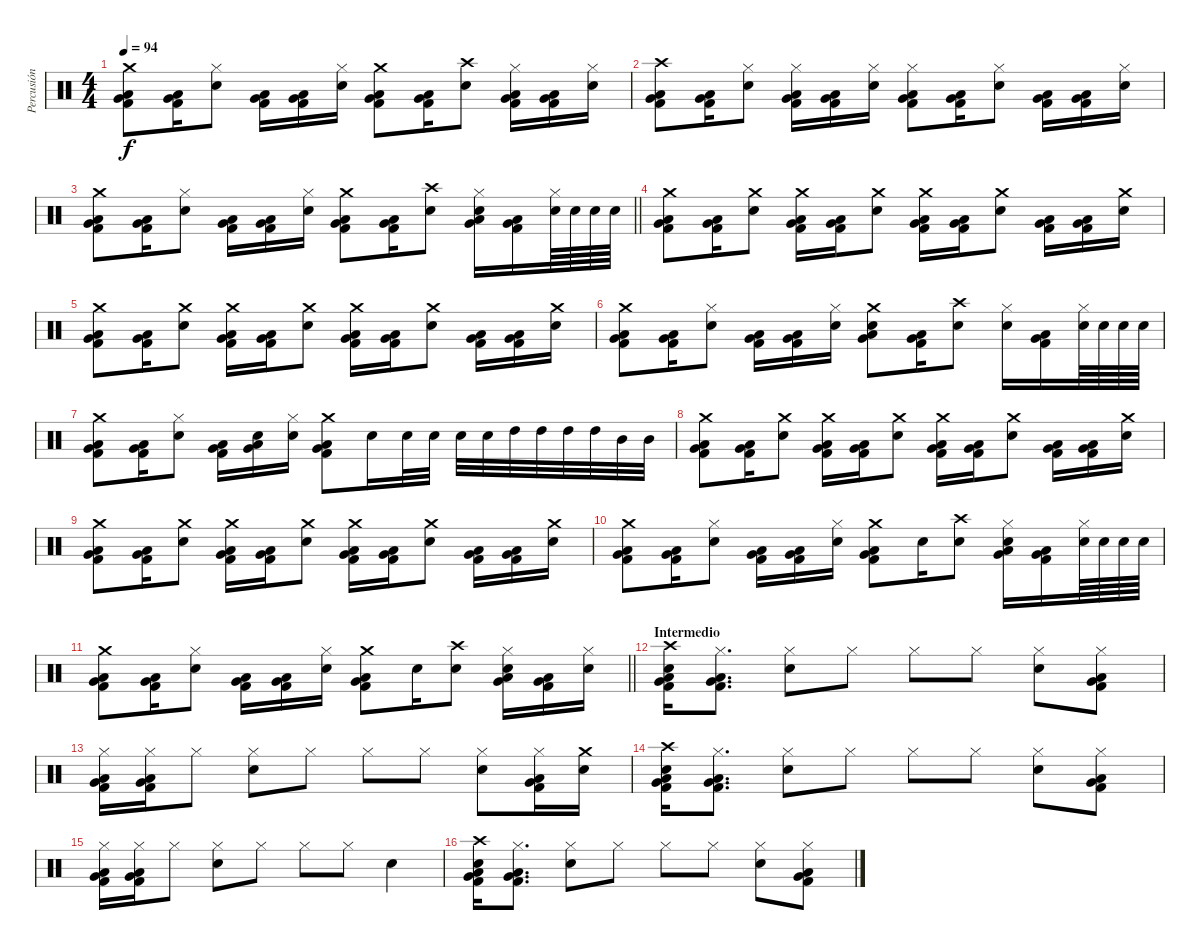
\track ("Percusión" "Percusión") {instrument percussion}
\staff {score}
\articulation defaults
\ts (4 4)
\tempo 94
\clef neutral
\ks c
("Crash medium (hit)" "Kick (hit) 2" "Low Floor Tom (hit)" "Very Low Tom (hit)").8{dy f} ("Kick (hit) 2" "Low Floor Tom (hit)" "Very Low Tom (hit)").16 ("Hi-Hat (closed)" "Electric Snare (hit)").8 ("Kick (hit) 2" "Low Floor Tom (hit)" "Very Low Tom (hit)").16 ("Kick (hit) 2" "Low Floor Tom (hit)" "Very Low Tom (hit)").16 ("Hi-Hat (closed)" "Electric Snare (hit)").16 ("Crash medium (hit)" "Kick (hit) 2" "Low Floor Tom (hit)" "Very Low Tom (hit)").8 ("Kick (hit) 2" "Low Floor Tom (hit)" "Very Low Tom (hit)").16 ("Crash high (hit)" "Electric Snare (hit)").8 ("Hi-Hat (closed)" "Kick (hit) 2" "Low Floor Tom (hit)" "Very Low Tom (hit)").16 ("Kick (hit) 2" "Low Floor Tom (hit)" "Very Low Tom (hit)").16 ("Hi-Hat (closed)" "Electric Snare (hit)").16 |
("Crash high (hit)" "Kick (hit) 2" "Low Floor Tom (hit)" "Very Low Tom (hit)").8 ("Kick (hit) 2" "Low Floor Tom (hit)" "Very Low Tom (hit)").16 ("Hi-Hat (closed)" "Electric Snare (hit)").8 ("Hi-Hat (closed)" "Kick (hit) 2" "Low Floor Tom (hit)" "Very Low Tom (hit)").16 ("Kick (hit) 2" "Low Floor Tom (hit)" "Very Low Tom (hit)").16 ("Hi-Hat (closed)" "Electric Snare (hit)").16 ("Hi-Hat (closed)" "Kick (hit) 2" "Low Floor Tom (hit)" "Very Low Tom (hit)").8 ("Kick (hit) 2" "Low Floor Tom (hit)" "Very Low Tom (hit)").16 ("Hi-Hat (closed)" "Electric Snare (hit)").8 ("Kick (hit) 2" "Low Floor Tom (hit)" "Very Low Tom (hit)").16 ("Kick (hit) 2" "Low Floor Tom (hit)" "Very Low Tom (hit)").16 ("Hi-Hat (closed)" "Electric Snare (hit)").16 |
\barLineRight lightlight
("Crash medium (hit)" "Kick (hit) 2" "Low Floor Tom (hit)" "Very Low Tom (hit)").8 ("Kick (hit) 2" "Low Floor Tom (hit)" "Very Low Tom (hit)").16 ("Hi-Hat (closed)" "Electric Snare (hit)").8 ("Kick (hit) 2" "Low Floor Tom (hit)" "Very Low Tom (hit)").16 ("Kick (hit) 2" "Low Floor Tom (hit)" "Very Low Tom (hit)").16 ("Hi-Hat (closed)" "Electric Snare (hit)").16 ("Crash medium (hit)" "Kick (hit) 2" "Low Floor Tom (hit)" "Very Low Tom (hit)").8 ("Kick (hit) 2" "Low Floor Tom (hit)" "Very Low Tom (hit)").16 ("Crash high (hit)" "Electric Snare (hit)").8 ("Hi-Hat (closed)" "Electric Snare (hit)" "Low Floor Tom (hit)" "Very Low Tom (hit)").16 ("Kick (hit) 2" "Low Floor Tom (hit)" "Very Low Tom (hit)").16 ("Hi-Hat (closed)" "Electric Snare (hit)").64 "Electric Snare (hit)".64 "Electric Snare (hit)".64 "Electric Snare (hit)".64 |
("Crash medium (hit)" "Kick (hit) 2" "Low Floor Tom (hit)" "Very Low Tom (hit)").8 ("Kick (hit) 2" "Low Floor Tom (hit)" "Very Low Tom (hit)").16 ("Crash medium (hit)" "Electric Snare (hit)").8 ("Crash medium (hit)" "Kick (hit) 2" "Low Floor Tom (hit)" "Very Low Tom (hit)").16 ("Kick (hit) 2" "Low Floor Tom (hit)" "Very Low Tom (hit)").16 ("Crash medium (hit)" "Electric Snare (hit)").8 ("Crash medium (hit)" "Kick (hit) 2" "Low Floor Tom (hit)" "Very Low Tom (hit)").16 ("Kick (hit) 2" "Low Floor Tom (hit)" "Very Low Tom (hit)").16 ("Crash medium (hit)" "Electric Snare (hit)").8 ("Kick (hit) 2" "Low Floor Tom (hit)" "Very Low Tom (hit)").16 ("Kick (hit) 2" "Low Floor Tom (hit)" "Very Low Tom (hit)").16 ("Crash medium (hit)" "Electric Snare (hit)").16 |
("Crash medium (hit)" "Kick (hit) 2" "Low Floor Tom (hit)" "Very Low Tom (hit)").8 ("Kick (hit) 2" "Low Floor Tom (hit)" "Very Low Tom (hit)").16 ("Crash medium (hit)" "Electric Snare (hit)").8 ("Crash medium (hit)" "Kick (hit) 2" "Low Floor Tom (hit)" "Very Low Tom (hit)").16 ("Kick (hit) 2" "Low Floor Tom (hit)" "Very Low Tom (hit)").16 ("Crash medium (hit)" "Electric Snare (hit)").8 ("Crash medium (hit)" "Kick (hit) 2" "Low Floor Tom (hit)" "Very Low Tom (hit)").16 ("Kick (hit) 2" "Low Floor Tom (hit)" "Very Low Tom (hit)").16 ("Crash medium (hit)" "Electric Snare (hit)").8 ("Kick (hit) 2" "Low Floor Tom (hit)" "Very Low Tom (hit)").16 ("Kick (hit) 2" "Low Floor Tom (hit)" "Very Low Tom (hit)").16 ("Crash medium (hit)" "Electric Snare (hit)").16 |
("Crash medium (hit)" "Kick (hit) 2" "Low Floor Tom (hit)" "Very Low Tom (hit)").8 ("Kick (hit) 2" "Low Floor Tom (hit)" "Very Low Tom (hit)").16 ("Hi-Hat (closed)" "Electric Snare (hit)").8 ("Kick (hit) 2" "Low Floor Tom (hit)" "Very Low Tom (hit)").16 ("Kick (hit) 2" "Low Floor Tom (hit)" "Very Low Tom (hit)").16 ("Hi-Hat (closed)" "Electric Snare (hit)").16 ("Crash medium (hit)" "Electric Snare (hit)" "Low Floor Tom (hit)" "Very Low Tom (hit)").8 ("Kick (hit) 2" "Low Floor Tom (hit)" "Very Low Tom (hit)").16 ("Crash high (hit)" "Electric Snare (hit)").8 ("Hi-Hat (closed)" "Electric Snare (hit)").16 ("Kick (hit) 2" "Low Floor Tom (hit)" "Very Low Tom (hit)").16 ("Hi-Hat (closed)" "Electric Snare (hit)").64 "Electric Snare (hit)".64 "Electric Snare (hit)".64 "Electric Snare (hit)".64 |
("Crash medium (hit)" "Kick (hit) 2" "Low Floor Tom (hit)" "Very Low Tom (hit)").8 ("Kick (hit) 2" "Low Floor Tom (hit)" "Very Low Tom (hit)").16 ("Hi-Hat (closed)" "Electric Snare (hit)").8 ("Kick (hit) 2" "Low Floor Tom (hit)" "Very Low Tom (hit)").16 ("Electric Snare (hit)" "Low Floor Tom (hit)" "Very Low Tom (hit)").16 ("Hi-Hat (closed)" "Electric Snare (hit)").16 ("Crash medium (hit)" "Kick (hit) 2" "Low Floor Tom (hit)" "Very Low Tom (hit)").8 "Electric Snare (hit)".16 "Electric Snare (hit)".32 "Electric Snare (hit)".32 "Electric Snare (hit)".32 "Electric Snare (hit)".32 "High Tom (hit)".32 "High Tom (hit)".32 "High Tom (hit)".32 "High Tom (hit)".32 "Mid Tom (hit)".32 "Mid Tom (hit)".32 |
("Crash medium (hit)" "Kick (hit) 2" "Low Floor Tom (hit)" "Very Low Tom (hit)").8 ("Kick (hit) 2" "Low Floor Tom (hit)" "Very Low Tom (hit)").16 ("Crash medium (hit)" "Electric Snare (hit)").8 ("Crash medium (hit)" "Kick (hit) 2" "Low Floor Tom (hit)" "Very Low Tom (hit)").16 ("Kick (hit) 2" "Low Floor Tom (hit)" "Very Low Tom (hit)").16 ("Crash medium (hit)" "Electric Snare (hit)").8 ("Crash medium (hit)" "Kick (hit) 2" "Low Floor Tom (hit)" "Very Low Tom (hit)").16 ("Kick (hit) 2" "Low Floor Tom (hit)" "Very Low Tom (hit)").16 ("Crash medium (hit)" "Electric Snare (hit)").8 ("Kick (hit) 2" "Low Floor Tom (hit)" "Very Low Tom (hit)").16 ("Kick (hit) 2" "Low Floor Tom (hit)" "Very Low Tom (hit)").16 ("Crash medium (hit)" "Electric Snare (hit)").16 |
("Crash medium (hit)" "Kick (hit) 2" "Low Floor Tom (hit)" "Very Low Tom (hit)").8 ("Kick (hit) 2" "Low Floor Tom (hit)" "Very Low Tom (hit)").16 ("Crash medium (hit)" "Electric Snare (hit)").8 ("Crash medium (hit)" "Kick (hit) 2" "Low Floor Tom (hit)" "Very Low Tom (hit)").16 ("Kick (hit) 2" "Low Floor Tom (hit)" "Very Low Tom (hit)").16 ("Crash medium (hit)" "Electric Snare (hit)").8 ("Crash medium (hit)" "Kick (hit) 2" "Low Floor Tom (hit)" "Very Low Tom (hit)").16 ("Kick (hit) 2" "Low Floor Tom (hit)" "Very Low Tom (hit)").16 ("Crash medium (hit)" "Electric Snare (hit)").8 ("Kick (hit) 2" "Low Floor Tom (hit)" "Very Low Tom (hit)").16 ("Kick (hit) 2" "Low Floor Tom (hit)" "Very Low Tom (hit)").16 ("Crash medium (hit)" "Electric Snare (hit)").16 |
("Crash medium (hit)" "Kick (hit) 2" "Low Floor Tom (hit)" "Very Low Tom (hit)").8 ("Kick (hit) 2" "Low Floor Tom (hit)" "Very Low Tom (hit)").16 ("Hi-Hat (closed)" "Electric Snare (hit)").8 ("Kick (hit) 2" "Low Floor Tom (hit)" "Very Low Tom (hit)").16 ("Kick (hit) 2" "Low Floor Tom (hit)" "Very Low Tom (hit)").16 ("Hi-Hat (closed)" "Electric Snare (hit)").16 ("Crash medium (hit)" "Kick (hit) 2" "Low Floor Tom (hit)" "Very Low Tom (hit)").8 "Electric Snare (hit)".16 ("Crash high (hit)" "Electric Snare (hit)").8 ("Hi-Hat (closed)" "Electric Snare (hit)" "Low Floor Tom (hit)" "Very Low Tom (hit)").16 ("Kick (hit) 2" "Low Floor Tom (hit)" "Very Low Tom (hit)").16 ("Hi-Hat (closed)" "Electric Snare (hit)").64 "Electric Snare (hit)".64 "Electric Snare (hit)".64 "Electric Snare (hit)".64 |
\barLineRight lightlight
("Crash medium (hit)" "Kick (hit) 2" "Low Floor Tom (hit)" "Very Low Tom (hit)").8 ("Kick (hit) 2" "Low Floor Tom (hit)" "Very Low Tom (hit)").16 ("Hi-Hat (closed)" "Electric Snare (hit)").8 ("Kick (hit) 2" "Low Floor Tom (hit)" "Very Low Tom (hit)").16 ("Kick (hit) 2" "Low Floor Tom (hit)" "Very Low Tom (hit)").16 ("Hi-Hat (closed)" "Electric Snare (hit)").16 ("Crash medium (hit)" "Kick (hit) 2" "Low Floor Tom (hit)" "Very Low Tom (hit)").8 "Electric Snare (hit)".16 ("Crash high (hit)" "Electric Snare (hit)").8 ("Hi-Hat (closed)" "Electric Snare (hit)" "Low Floor Tom (hit)" "Very Low Tom (hit)").16 ("Kick (hit) 2" "Low Floor Tom (hit)" "Very Low Tom (hit)").16 ("Hi-Hat (closed)" "Electric Snare (hit)").16 |
\section ("" "Intermedio")
("Crash high (hit)" "Electric Snare (hit)" "Low Floor Tom (hit)" "Kick (hit) 2" "Very Low Tom (hit)").16 ("Hi-Hat (closed)" "Low Floor Tom (hit)" "Kick (hit) 2" "Very Low Tom (hit)").8{d} ("Hi-Hat (closed)" "Electric Snare (hit)").8 "Hi-Hat (closed)".8 "Hi-Hat (closed)".8 "Hi-Hat (closed)".8 ("Hi-Hat (closed)" "Electric Snare (hit)").8 ("Hi-Hat (closed)" "Kick (hit) 2" "Low Floor Tom (hit)" "Very Low Tom (hit)").8 |
("Hi-Hat (closed)" "Kick (hit) 2" "Low Floor Tom (hit)" "Very Low Tom (hit)").16 ("Hi-Hat (closed)" "Kick (hit) 2" "Low Floor Tom (hit)" "Very Low Tom (hit)").16 "Hi-Hat (closed)".8 ("Hi-Hat (closed)" "Electric Snare (hit)").8 "Hi-Hat (closed)".8 "Hi-Hat (closed)".8 "Hi-Hat (closed)".8 ("Hi-Hat (closed)" "Electric Snare (hit)").8 ("Hi-Hat (closed)" "Kick (hit) 2" "Low Floor Tom (hit)" "Very Low Tom (hit)").16 ("Crash medium (hit)" "Electric Snare (hit)").16 |
("Crash high (hit)" "Electric Snare (hit)" "Low Floor Tom (hit)" "Kick (hit) 2" "Very Low Tom (hit)").16 ("Hi-Hat (closed)" "Low Floor Tom (hit)" "Kick (hit) 2" "Very Low Tom (hit)").8{d} ("Hi-Hat (closed)" "Electric Snare (hit)").8 "Hi-Hat (closed)".8 "Hi-Hat (closed)".8 "Hi-Hat (closed)".8 ("Hi-Hat (closed)" "Electric Snare (hit)").8 ("Hi-Hat (closed)" "Kick (hit) 2" "Low Floor Tom (hit)" "Very Low Tom (hit)").8 |
("Hi-Hat (closed)" "Kick (hit) 2" "Low Floor Tom (hit)" "Very Low Tom (hit)").16 ("Hi-Hat (closed)" "Kick (hit) 2" "Low Floor Tom (hit)" "Very Low Tom (hit)").16 "Hi-Hat (closed)".8 ("Hi-Hat (closed)" "Electric Snare (hit)").8 "Hi-Hat (closed)".8 "Hi-Hat (closed)".8 "Hi-Hat (closed)".8 "Electric Snare (hit)".4 |
("Crash high (hit)" "Electric Snare (hit)" "Low Floor Tom (hit)" "Kick (hit) 2" "Very Low Tom (hit)").16 ("Hi-Hat (closed)" "Low Floor Tom (hit)" "Kick (hit) 2" "Very Low Tom (hit)").8{d} ("Hi-Hat (closed)" "Electric Snare (hit)").8 "Hi-Hat (closed)".8 "Hi-Hat (closed)".8 "Hi-Hat (closed)".8 ("Hi-Hat (closed)" "Electric Snare (hit)").8 ("Hi-Hat (closed)" "Kick (hit) 2" "Low Floor Tom (hit)" "Very Low Tom (hit)").8
